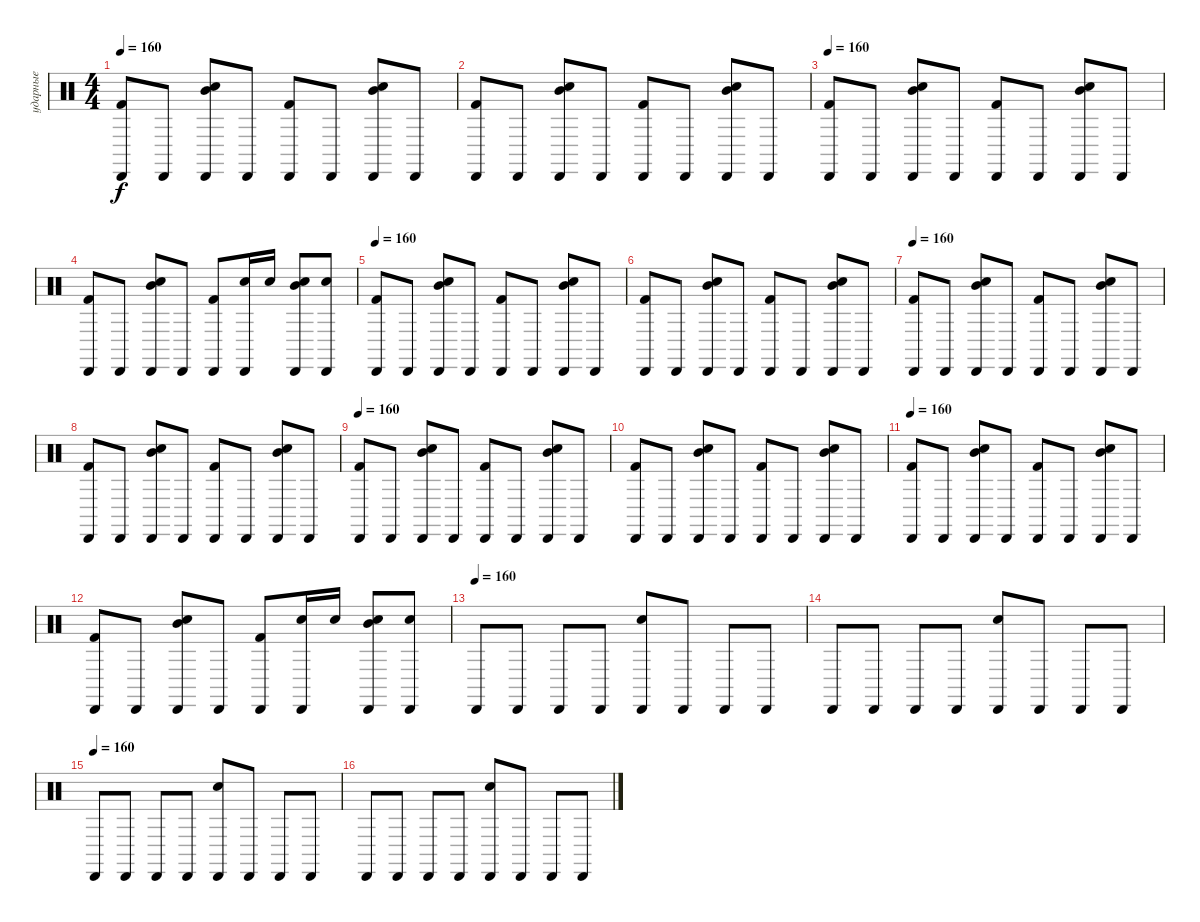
\track ("ударные" "ударные") {instrument percussion}
\staff {score}
\articulation defaults
\ts (4 4)
\tempo 160
\clef neutral
\ks c
("Kick (hit) 2" "Cabasa (hit)").8{dy f} "Cabasa (hit)".8 ("Electric Snare (hit)" "Mid Tom (hit)" "Cabasa (hit)").8 "Cabasa (hit)".8 ("Cabasa (hit)" "Kick (hit) 2").8 "Cabasa (hit)".8 ("Cabasa (hit)" "Electric Snare (hit)" "Mid Tom (hit)").8 "Cabasa (hit)".8 |
("Cabasa (hit)" "Kick (hit) 2").8 "Cabasa (hit)".8 ("Electric Snare (hit)" "Cabasa (hit)" "Mid Tom (hit)").8 "Cabasa (hit)".8 ("Cabasa (hit)" "Kick (hit) 2").8 "Cabasa (hit)".8 ("Mid Tom (hit)" "Electric Snare (hit)" "Cabasa (hit)").8 "Cabasa (hit)".8 |
\tempo 160
("Kick (hit) 2" "Cabasa (hit)").8 "Cabasa (hit)".8 ("Electric Snare (hit)" "Mid Tom (hit)" "Cabasa (hit)").8 "Cabasa (hit)".8 ("Cabasa (hit)" "Kick (hit) 2").8 "Cabasa (hit)".8 ("Cabasa (hit)" "Electric Snare (hit)" "Mid Tom (hit)").8 "Cabasa (hit)".8 |
("Cabasa (hit)" "Kick (hit) 2").8 "Cabasa (hit)".8 ("Electric Snare (hit)" "Cabasa (hit)" "Mid Tom (hit)").8 "Cabasa (hit)".8 ("Cabasa (hit)" "Kick (hit) 2").8 ("Electric Snare (hit)" "Cabasa (hit)").16 "Electric Snare (hit)".16 ("Electric Snare (hit)" "Mid Tom (hit)" "Cabasa (hit)").8 ("Electric Snare (hit)" "Cabasa (hit)").8 |
\tempo 160
("Kick (hit) 2" "Cabasa (hit)").8 "Cabasa (hit)".8 ("Electric Snare (hit)" "Mid Tom (hit)" "Cabasa (hit)").8 "Cabasa (hit)".8 ("Cabasa (hit)" "Kick (hit) 2").8 "Cabasa (hit)".8 ("Cabasa (hit)" "Electric Snare (hit)" "Mid Tom (hit)").8 "Cabasa (hit)".8 |
("Cabasa (hit)" "Kick (hit) 2").8 "Cabasa (hit)".8 ("Electric Snare (hit)" "Cabasa (hit)" "Mid Tom (hit)").8 "Cabasa (hit)".8 ("Cabasa (hit)" "Kick (hit) 2").8 "Cabasa (hit)".8 ("Mid Tom (hit)" "Electric Snare (hit)" "Cabasa (hit)").8 "Cabasa (hit)".8 |
\tempo 160
("Kick (hit) 2" "Cabasa (hit)").8 "Cabasa (hit)".8 ("Electric Snare (hit)" "Mid Tom (hit)" "Cabasa (hit)").8 "Cabasa (hit)".8 ("Cabasa (hit)" "Kick (hit) 2").8 "Cabasa (hit)".8 ("Cabasa (hit)" "Electric Snare (hit)" "Mid Tom (hit)").8 "Cabasa (hit)".8 |
("Cabasa (hit)" "Kick (hit) 2").8 "Cabasa (hit)".8 ("Electric Snare (hit)" "Cabasa (hit)" "Mid Tom (hit)").8 "Cabasa (hit)".8 ("Cabasa (hit)" "Kick (hit) 2").8 "Cabasa (hit)".8 ("Mid Tom (hit)" "Electric Snare (hit)" "Cabasa (hit)").8 "Cabasa (hit)".8 |
\tempo 160
("Kick (hit) 2" "Cabasa (hit)").8 "Cabasa (hit)".8 ("Electric Snare (hit)" "Mid Tom (hit)" "Cabasa (hit)").8 "Cabasa (hit)".8 ("Cabasa (hit)" "Kick (hit) 2").8 "Cabasa (hit)".8 ("Cabasa (hit)" "Electric Snare (hit)" "Mid Tom (hit)").8 "Cabasa (hit)".8 |
("Cabasa (hit)" "Kick (hit) 2").8 "Cabasa (hit)".8 ("Electric Snare (hit)" "Cabasa (hit)" "Mid Tom (hit)").8 "Cabasa (hit)".8 ("Cabasa (hit)" "Kick (hit) 2").8 "Cabasa (hit)".8 ("Mid Tom (hit)" "Electric Snare (hit)" "Cabasa (hit)").8 "Cabasa (hit)".8 |
\tempo 160
("Kick (hit) 2" "Cabasa (hit)").8 "Cabasa (hit)".8 ("Electric Snare (hit)" "Mid Tom (hit)" "Cabasa (hit)").8 "Cabasa (hit)".8 ("Cabasa (hit)" "Kick (hit) 2").8 "Cabasa (hit)".8 ("Cabasa (hit)" "Electric Snare (hit)" "Mid Tom (hit)").8 "Cabasa (hit)".8 |
("Cabasa (hit)" "Kick (hit) 2").8 "Cabasa (hit)".8 ("Electric Snare (hit)" "Cabasa (hit)" "Mid Tom (hit)").8 "Cabasa (hit)".8 ("Cabasa (hit)" "Kick (hit) 2").8 ("Electric Snare (hit)" "Cabasa (hit)").16 "Electric Snare (hit)".16 ("Electric Snare (hit)" "Mid Tom (hit)" "Cabasa (hit)").8 ("Electric Snare (hit)" "Cabasa (hit)").8 |
\tempo (160)
"Cabasa (hit)".8 "Cabasa (hit)".8 "Cabasa (hit)".8 "Cabasa (hit)".8 ("Electric Snare (hit)" "Cabasa (hit)").8 "Cabasa (hit)".8 "Cabasa (hit)".8 "Cabasa (hit)".8 |
"Cabasa (hit)".8 "Cabasa (hit)".8 "Cabasa (hit)".8 "Cabasa (hit)".8 ("Electric Snare (hit)" "Cabasa (hit)").8 "Cabasa (hit)".8 "Cabasa (hit)".8 "Cabasa (hit)".8 |
\tempo (160)
"Cabasa (hit)".8 "Cabasa (hit)".8 "Cabasa (hit)".8 "Cabasa (hit)".8 ("Electric Snare (hit)" "Cabasa (hit)").8 "Cabasa (hit)".8 "Cabasa (hit)".8 "Cabasa (hit)".8 |
"Cabasa (hit)".8 "Cabasa (hit)".8 "Cabasa (hit)".8 "Cabasa (hit)".8 ("Electric Snare (hit)" "Cabasa (hit)").8 "Cabasa (hit)".8 "Cabasa (hit)".8 "Cabasa (hit)".8
